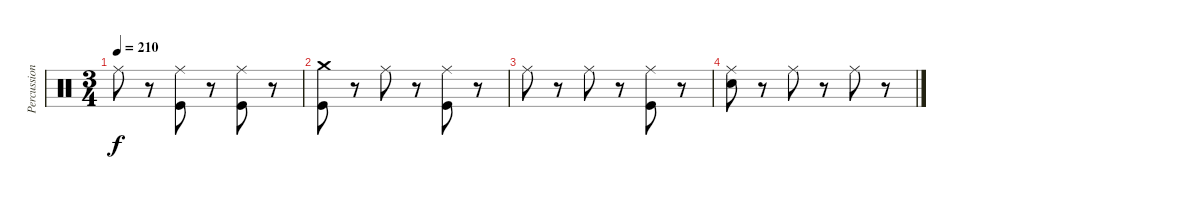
\track ("Percussion" "Percussion") {instrument percussion}
\staff {score}
\articulation defaults
\ts (3 4)
\tempo 210
\clef neutral
\ks c "Ride (middle)".8{dy f}
r.8 ("Ride (middle)" "Kick (hit)").8 r.8 ("Ride (middle)" "Kick (hit)").8 r.8 |
("Crash medium (hit)" "Kick (hit)").8 r.8 "Ride (middle)".8 r.8 ("Ride (middle)" "Kick (hit)").8 r.8 |
"Ride (middle)".8 r.8 "Ride (middle)".8 r.8 ("Ride (middle)" "Kick (hit)").8 r.8 |
("Ride (middle)" "Electric Snare (hit)").8 r.8 "Ride (middle)".8 r.8 "Ride (middle)".8 r.8
